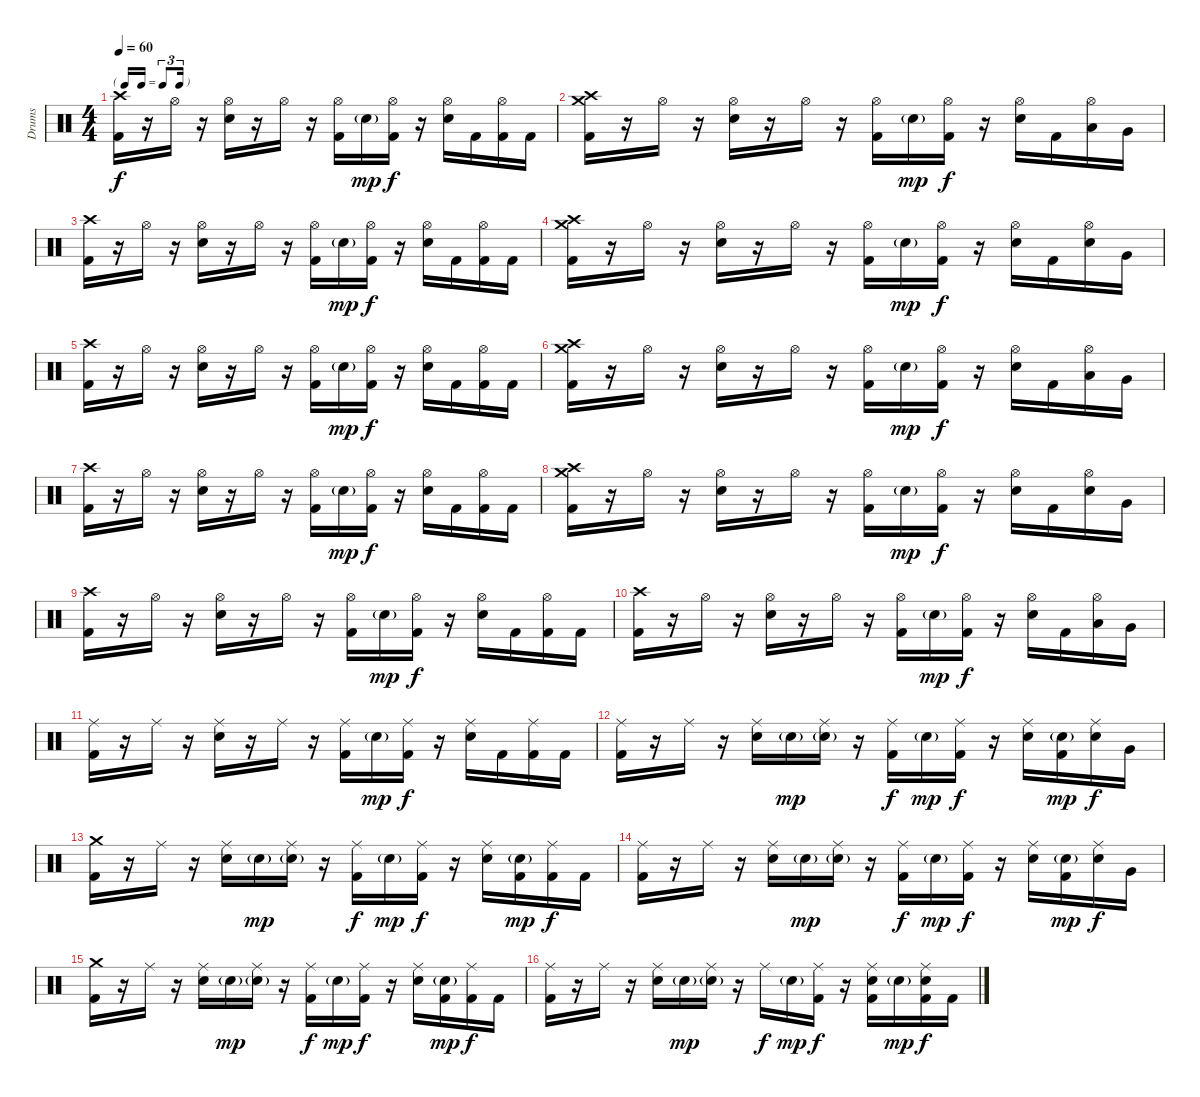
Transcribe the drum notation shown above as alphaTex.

\track ("Drums" "Drums") {instrument percussion}
\staff
\articulation defaults
\ts (4 4)
\tf triplet16th
\tempo 60
\clef neutral
\ks c
("Kick (hit) 2" "Crash high (hit)").16{dy f} r.16 "Hi-Hat (open)".16 r.16 ("Electric Snare (hit)" "Hi-Hat (open)").16 r.16 "Hi-Hat (open)".16 r.16 ("Kick (hit) 2" "Hi-Hat (open)").16 "Electric Snare (hit)"{g}.16{dy mp} ("Kick (hit) 2" "Hi-Hat (open)").16{dy f} r.16 ("Electric Snare (hit)" "Hi-Hat (open)").16 "Kick (hit) 2".16 ("Kick (hit) 2" "Hi-Hat (open)").16 "Kick (hit) 2".16 |
("Kick (hit) 2" "Crash high (hit)" "Crash medium (hit)").16 r.16 "Hi-Hat (open)".16 r.16 ("Electric Snare (hit)" "Hi-Hat (open)").16 r.16 "Hi-Hat (open)".16 r.16 ("Kick (hit) 2" "Hi-Hat (open)").16 "Electric Snare (hit)"{g}.16{dy mp} ("Kick (hit) 2" "Hi-Hat (open)").16{dy f} r.16 ("Electric Snare (hit)" "Hi-Hat (open)").16 "Kick (hit) 2".16 ("Low Tom (hit)" "Hi-Hat (open)").16 "Very Low Tom (hit)".16 |
("Kick (hit) 2" "Crash high (hit)").16 r.16 "Hi-Hat (open)".16 r.16 ("Electric Snare (hit)" "Hi-Hat (open)").16 r.16 "Hi-Hat (open)".16 r.16 ("Kick (hit) 2" "Hi-Hat (open)").16 "Electric Snare (hit)"{g}.16{dy mp} ("Kick (hit) 2" "Hi-Hat (open)").16{dy f} r.16 ("Electric Snare (hit)" "Hi-Hat (open)").16 "Kick (hit) 2".16 ("Kick (hit) 2" "Hi-Hat (open)").16 "Kick (hit) 2".16 |
("Kick (hit) 2" "Crash high (hit)" "Crash medium (hit)").16 r.16 "Hi-Hat (open)".16 r.16 ("Electric Snare (hit)" "Hi-Hat (open)").16 r.16 "Hi-Hat (open)".16 r.16 ("Kick (hit) 2" "Hi-Hat (open)").16 "Electric Snare (hit)"{g}.16{dy mp} ("Kick (hit) 2" "Hi-Hat (open)").16{dy f} r.16 ("Electric Snare (hit)" "Hi-Hat (open)").16 "Kick (hit) 2".16 ("Electric Snare (hit)" "Hi-Hat (open)").16 "Very Low Tom (hit)".16 |
("Kick (hit) 2" "Crash high (hit)").16 r.16 "Hi-Hat (open)".16 r.16 ("Electric Snare (hit)" "Hi-Hat (open)").16 r.16 "Hi-Hat (open)".16 r.16 ("Kick (hit) 2" "Hi-Hat (open)").16 "Electric Snare (hit)"{g}.16{dy mp} ("Kick (hit) 2" "Hi-Hat (open)").16{dy f} r.16 ("Electric Snare (hit)" "Hi-Hat (open)").16 "Kick (hit) 2".16 ("Kick (hit) 2" "Hi-Hat (open)").16 "Kick (hit) 2".16 |
("Kick (hit) 2" "Crash high (hit)" "Crash medium (hit)").16 r.16 "Hi-Hat (open)".16 r.16 ("Electric Snare (hit)" "Hi-Hat (open)").16 r.16 "Hi-Hat (open)".16 r.16 ("Kick (hit) 2" "Hi-Hat (open)").16 "Electric Snare (hit)"{g}.16{dy mp} ("Kick (hit) 2" "Hi-Hat (open)").16{dy f} r.16 ("Electric Snare (hit)" "Hi-Hat (open)").16 "Kick (hit) 2".16 ("Low Tom (hit)" "Hi-Hat (open)").16 "Very Low Tom (hit)".16 |
("Kick (hit) 2" "Crash high (hit)").16 r.16 "Hi-Hat (open)".16 r.16 ("Electric Snare (hit)" "Hi-Hat (open)").16 r.16 "Hi-Hat (open)".16 r.16 ("Kick (hit) 2" "Hi-Hat (open)").16 "Electric Snare (hit)"{g}.16{dy mp} ("Kick (hit) 2" "Hi-Hat (open)").16{dy f} r.16 ("Electric Snare (hit)" "Hi-Hat (open)").16 "Kick (hit) 2".16 ("Kick (hit) 2" "Hi-Hat (open)").16 "Kick (hit) 2".16 |
("Kick (hit) 2" "Crash high (hit)" "Crash medium (hit)").16 r.16 "Hi-Hat (open)".16 r.16 ("Electric Snare (hit)" "Hi-Hat (open)").16 r.16 "Hi-Hat (open)".16 r.16 ("Kick (hit) 2" "Hi-Hat (open)").16 "Electric Snare (hit)"{g}.16{dy mp} ("Kick (hit) 2" "Hi-Hat (open)").16{dy f} r.16 ("Electric Snare (hit)" "Hi-Hat (open)").16 "Kick (hit) 2".16 ("Electric Snare (hit)" "Hi-Hat (open)").16 "Very Low Tom (hit)".16 |
("Kick (hit) 2" "Crash high (hit)").16 r.16 "Hi-Hat (open)".16 r.16 ("Electric Snare (hit)" "Hi-Hat (open)").16 r.16 "Hi-Hat (open)".16 r.16 ("Kick (hit) 2" "Hi-Hat (open)").16 "Electric Snare (hit)"{g}.16{dy mp} ("Kick (hit) 2" "Hi-Hat (open)").16{dy f} r.16 ("Electric Snare (hit)" "Hi-Hat (open)").16 "Kick (hit) 2".16 ("Kick (hit) 2" "Hi-Hat (open)").16 "Kick (hit) 2".16 |
("Kick (hit) 2" "Crash high (hit)").16 r.16 "Hi-Hat (open)".16 r.16 ("Electric Snare (hit)" "Hi-Hat (open)").16 r.16 "Hi-Hat (open)".16 r.16 ("Kick (hit) 2" "Hi-Hat (open)").16 "Electric Snare (hit)"{g}.16{dy mp} ("Kick (hit) 2" "Hi-Hat (open)").16{dy f} r.16 ("Electric Snare (hit)" "Hi-Hat (open)").16 "Kick (hit) 2".16 ("Low Tom (hit)" "Hi-Hat (open)").16 "Very Low Tom (hit)".16 |
("Kick (hit) 2" "Ride (middle)").16 r.16 "Ride (middle)".16 r.16 ("Electric Snare (hit)" "Ride (middle)").16 r.16 "Ride (middle)".16 r.16 ("Kick (hit) 2" "Ride (middle)").16 "Electric Snare (hit)"{g}.16{dy mp} ("Kick (hit) 2" "Ride (middle)").16{dy f} r.16 ("Electric Snare (hit)" "Ride (middle)").16 "Kick (hit) 2".16 ("Kick (hit) 2" "Ride (middle)").16 "Kick (hit) 2".16 |
("Kick (hit) 2" "Ride (middle)").16 r.16 "Ride (middle)".16 r.16 ("Electric Snare (hit)" "Ride (middle)").16 "Electric Snare (hit)"{g}.16{dy mp} ("Electric Snare (hit)"{g} "Ride (middle)").16 r.16 ("Kick (hit) 2" "Ride (middle)").16{dy f} "Electric Snare (hit)"{g}.16{dy mp} ("Kick (hit) 2" "Ride (middle)").16{dy f} r.16 ("Electric Snare (hit)" "Ride (middle)").16 ("Kick (hit) 2" "Electric Snare (hit)"{g}).16{dy mp} ("Electric Snare (hit)" "Ride (middle)").16{dy f} "Very Low Tom (hit)".16 |
("Kick (hit) 2" "Crash medium (hit)").16 r.16 "Ride (middle)".16 r.16 ("Electric Snare (hit)" "Ride (middle)").16 "Electric Snare (hit)"{g}.16{dy mp} ("Electric Snare (hit)"{g} "Ride (middle)").16 r.16 ("Kick (hit) 2" "Ride (middle)").16{dy f} "Electric Snare (hit)"{g}.16{dy mp} ("Kick (hit) 2" "Ride (middle)").16{dy f} r.16 ("Electric Snare (hit)" "Ride (middle)").16 ("Kick (hit) 2" "Electric Snare (hit)"{g}).16{dy mp} ("Kick (hit) 2" "Ride (middle)").16{dy f} "Kick (hit) 2".16 |
("Kick (hit) 2" "Ride (middle)").16 r.16 "Ride (middle)".16 r.16 ("Electric Snare (hit)" "Ride (middle)").16 "Electric Snare (hit)"{g}.16{dy mp} ("Electric Snare (hit)"{g} "Ride (middle)").16 r.16 ("Kick (hit) 2" "Ride (middle)").16{dy f} "Electric Snare (hit)"{g}.16{dy mp} ("Kick (hit) 2" "Ride (middle)").16{dy f} r.16 ("Electric Snare (hit)" "Ride (middle)").16 ("Kick (hit) 2" "Electric Snare (hit)"{g}).16{dy mp} ("Electric Snare (hit)" "Ride (middle)").16{dy f} "Very Low Tom (hit)".16 |
("Kick (hit) 2" "Crash medium (hit)").16 r.16 "Ride (middle)".16 r.16 ("Electric Snare (hit)" "Ride (middle)").16 "Electric Snare (hit)"{g}.16{dy mp} ("Electric Snare (hit)"{g} "Ride (middle)").16 r.16 ("Kick (hit) 2" "Ride (middle)").16{dy f} "Electric Snare (hit)"{g}.16{dy mp} ("Kick (hit) 2" "Ride (middle)").16{dy f} r.16 ("Electric Snare (hit)" "Ride (middle)").16 ("Kick (hit) 2" "Electric Snare (hit)"{g}).16{dy mp} ("Kick (hit) 2" "Ride (middle)").16{dy f} "Kick (hit) 2".16 |
("Kick (hit) 2" "Ride (middle)").16 r.16 "Ride (middle)".16 r.16 ("Electric Snare (hit)" "Ride (middle)").16 "Electric Snare (hit)"{g}.16{dy mp} ("Electric Snare (hit)"{g} "Ride (middle)").16 r.16 "Ride (middle)".16{dy f} "Electric Snare (hit)"{g}.16{dy mp} ("Kick (hit) 2" "Ride (middle)").16{dy f} r.16 ("Kick (hit) 2" "Electric Snare (hit)" "Ride (middle)").16 "Electric Snare (hit)"{g}.16{dy mp} ("Kick (hit) 2" "Electric Snare (hit)" "Ride (middle)").16{dy f} "Kick (hit) 2".16
